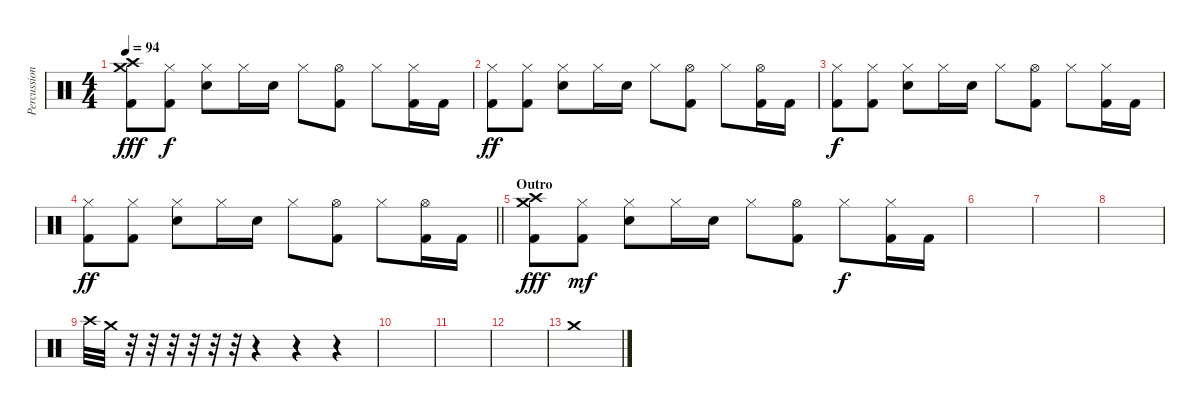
\track ("Percussion" "Percussion") {instrument percussion}
\staff {score}
\articulation defaults
\ts (4 4)
\tempo 94
\clef neutral
\ks c
("Crash high (hit)" "Crash medium (hit)" "Kick (hit) 2").8{dy fff} ("Hi-Hat (closed)" "Kick (hit) 2").8{dy f} ("Hi-Hat (closed)" "Snare (hit) 2").8 "Hi-Hat (closed)".16 "Snare (hit) 2".16 "Hi-Hat (closed)".8 ("Hi-Hat (open)" "Kick (hit) 2").8 "Hi-Hat (closed)".8 ("Hi-Hat (closed)" "Kick (hit) 2").16 "Kick (hit) 2".16 |
("Hi-Hat (closed)" "Kick (hit) 2").8{dy ff} ("Hi-Hat (closed)" "Kick (hit) 2").8 ("Hi-Hat (closed)" "Snare (hit) 2").8 "Hi-Hat (closed)".16 "Snare (hit) 2".16 "Hi-Hat (closed)".8 ("Hi-Hat (open)" "Kick (hit) 2").8 "Hi-Hat (closed)".8 ("Hi-Hat (open)" "Kick (hit) 2").16 "Kick (hit) 2".16 |
("Hi-Hat (closed)" "Kick (hit) 2").8{dy f} ("Hi-Hat (closed)" "Kick (hit) 2").8 ("Hi-Hat (closed)" "Snare (hit) 2").8 "Hi-Hat (closed)".16 "Snare (hit) 2".16 "Hi-Hat (closed)".8 ("Hi-Hat (open)" "Kick (hit) 2").8 "Hi-Hat (closed)".8 ("Hi-Hat (closed)" "Kick (hit) 2").16 "Kick (hit) 2".16 |
\barLineRight lightlight
("Hi-Hat (closed)" "Kick (hit) 2").8{dy ff} ("Hi-Hat (closed)" "Kick (hit) 2").8 ("Hi-Hat (closed)" "Snare (hit) 2").8 "Hi-Hat (closed)".16 "Snare (hit) 2".16 "Hi-Hat (closed)".8 ("Hi-Hat (open)" "Kick (hit) 2").8 "Hi-Hat (closed)".8 ("Hi-Hat (open)" "Kick (hit) 2").16 "Kick (hit) 2".16 |
\section ("" "Outro")
("Crash high (hit)" "Crash medium (hit)" "Kick (hit) 2").8{dy fff} ("Hi-Hat (closed)" "Kick (hit) 2").8{dy mf volume 2} ("Hi-Hat (closed)" "Snare (hit) 2").8 "Hi-Hat (closed)".16 "Snare (hit) 2".16 "Hi-Hat (closed)".8 ("Hi-Hat (open)" "Kick (hit) 2").8 "Hi-Hat (closed)".8{dy f} ("Hi-Hat (closed)" "Kick (hit) 2").16 "Kick (hit) 2".16 |
|
|
|
"Crash high (hit)".32{volume 8} "Crash medium (hit)".32 r.32 r.32 r.32 r.32 r.32 r.32 r.4 r.4 r.4 |
|
|
|
"Crash medium (hit)".1
